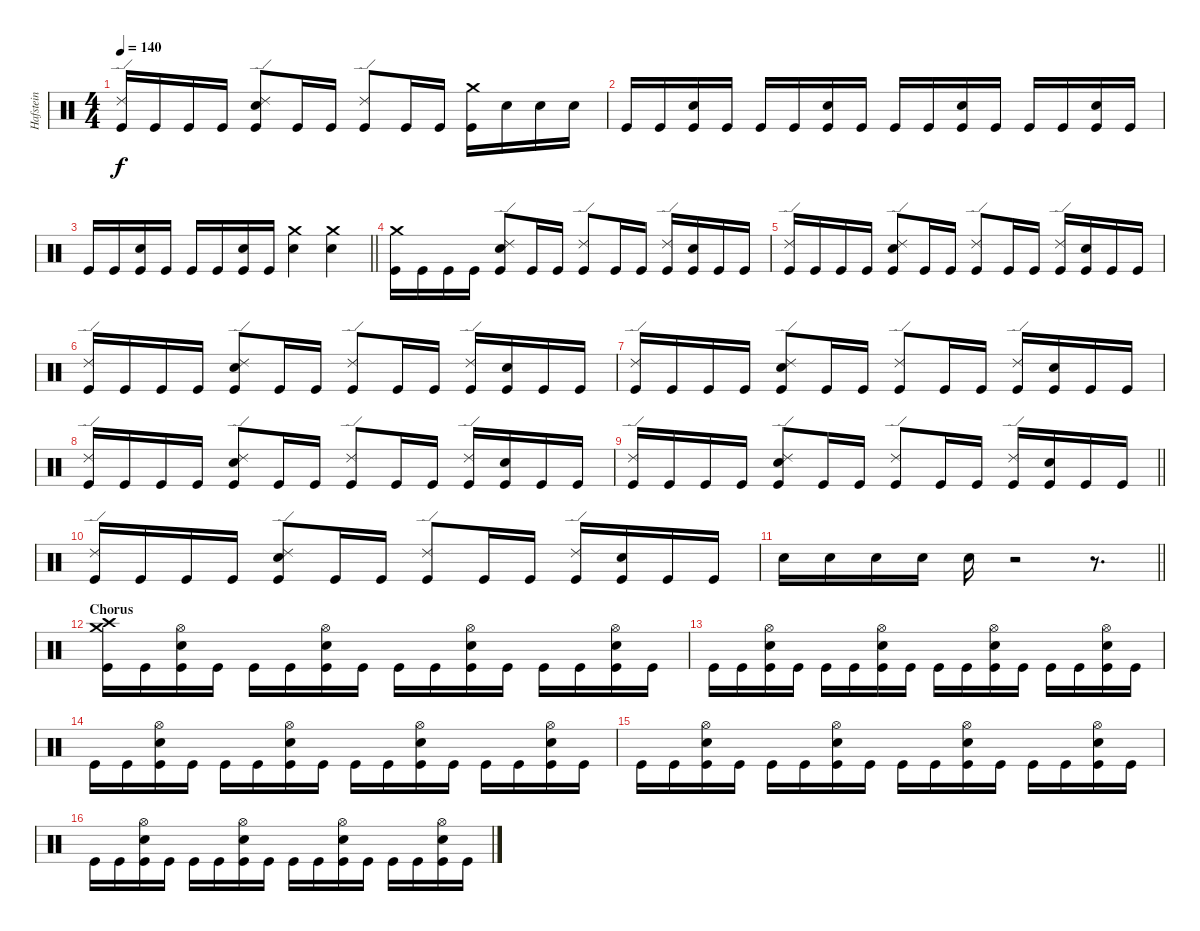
\track ("Hafstein" "Hafstein") {instrument percussion}
\staff {score}
\articulation defaults
\ts (4 4)
\tempo 140
\clef neutral
\ks c
("Ride (edge) 2" "Kick (hit)").16{dy f} "Kick (hit)".16 "Kick (hit)".16 "Kick (hit)".16 ("Ride (edge) 2" "Electric Snare (hit)" "Kick (hit)").8 "Kick (hit)".16 "Kick (hit)".16 ("Ride (edge) 2" "Kick (hit)").8 "Kick (hit)".16 "Kick (hit)".16 ("Crash medium (hit)" "Kick (hit)").16 "Electric Snare (hit)".16 "Electric Snare (hit)".16 "Electric Snare (hit)".16 |
"Kick (hit)".16 "Kick (hit)".16 ("Electric Snare (hit)" "Kick (hit)").16 "Kick (hit)".16 "Kick (hit)".16 "Kick (hit)".16 ("Electric Snare (hit)" "Kick (hit)").16 "Kick (hit)".16 "Kick (hit)".16 "Kick (hit)".16 ("Electric Snare (hit)" "Kick (hit)").16 "Kick (hit)".16 "Kick (hit)".16 "Kick (hit)".16 ("Electric Snare (hit)" "Kick (hit)").16 "Kick (hit)".16 |
\barLineRight lightlight "Kick (hit)".16 "Kick (hit)".16
("Electric Snare (hit)" "Kick (hit)").16 "Kick (hit)".16 "Kick (hit)".16 "Kick (hit)".16 ("Electric Snare (hit)" "Kick (hit)").16 "Kick (hit)".16 ("Crash medium (hit)" "Electric Snare (hit)").4 ("Crash medium (hit)" "Electric Snare (hit)").4 |
("Crash medium (hit)" "Kick (hit)").16 "Kick (hit)".16 "Kick (hit)".16 "Kick (hit)".16 ("Ride (edge) 2" "Electric Snare (hit)" "Kick (hit)").8 "Kick (hit)".16 "Kick (hit)".16 ("Ride (edge) 2" "Kick (hit)").8 "Kick (hit)".16 "Kick (hit)".16 ("Ride (edge) 2" "Kick (hit)").16 ("Electric Snare (hit)" "Kick (hit)").16 "Kick (hit)".16 "Kick (hit)".16 |
("Ride (edge) 2" "Kick (hit)").16 "Kick (hit)".16 "Kick (hit)".16 "Kick (hit)".16 ("Ride (edge) 2" "Electric Snare (hit)" "Kick (hit)").8 "Kick (hit)".16 "Kick (hit)".16 ("Ride (edge) 2" "Kick (hit)").8 "Kick (hit)".16 "Kick (hit)".16 ("Ride (edge) 2" "Kick (hit)").16 ("Electric Snare (hit)" "Kick (hit)").16 "Kick (hit)".16 "Kick (hit)".16 |
("Ride (edge) 2" "Kick (hit)").16 "Kick (hit)".16 "Kick (hit)".16 "Kick (hit)".16 ("Ride (edge) 2" "Electric Snare (hit)" "Kick (hit)").8 "Kick (hit)".16 "Kick (hit)".16 ("Ride (edge) 2" "Kick (hit)").8 "Kick (hit)".16 "Kick (hit)".16 ("Ride (edge) 2" "Kick (hit)").16 ("Electric Snare (hit)" "Kick (hit)").16 "Kick (hit)".16 "Kick (hit)".16 |
("Ride (edge) 2" "Kick (hit)").16 "Kick (hit)".16 "Kick (hit)".16 "Kick (hit)".16 ("Ride (edge) 2" "Electric Snare (hit)" "Kick (hit)").8 "Kick (hit)".16 "Kick (hit)".16 ("Ride (edge) 2" "Kick (hit)").8 "Kick (hit)".16 "Kick (hit)".16 ("Ride (edge) 2" "Kick (hit)").16 ("Electric Snare (hit)" "Kick (hit)").16 "Kick (hit)".16 "Kick (hit)".16 |
("Ride (edge) 2" "Kick (hit)").16 "Kick (hit)".16 "Kick (hit)".16 "Kick (hit)".16 ("Ride (edge) 2" "Electric Snare (hit)" "Kick (hit)").8 "Kick (hit)".16 "Kick (hit)".16 ("Ride (edge) 2" "Kick (hit)").8 "Kick (hit)".16 "Kick (hit)".16 ("Ride (edge) 2" "Kick (hit)").16 ("Electric Snare (hit)" "Kick (hit)").16 "Kick (hit)".16 "Kick (hit)".16 |
\barLineRight lightlight
("Ride (edge) 2" "Kick (hit)").16 "Kick (hit)".16 "Kick (hit)".16 "Kick (hit)".16 ("Ride (edge) 2" "Electric Snare (hit)" "Kick (hit)").8 "Kick (hit)".16 "Kick (hit)".16 ("Ride (edge) 2" "Kick (hit)").8 "Kick (hit)".16 "Kick (hit)".16 ("Ride (edge) 2" "Kick (hit)").16 ("Electric Snare (hit)" "Kick (hit)").16 "Kick (hit)".16 "Kick (hit)".16 |
("Ride (edge) 2" "Kick (hit)").16 "Kick (hit)".16 "Kick (hit)".16 "Kick (hit)".16 ("Ride (edge) 2" "Electric Snare (hit)" "Kick (hit)").8 "Kick (hit)".16 "Kick (hit)".16 ("Ride (edge) 2" "Kick (hit)").8 "Kick (hit)".16 "Kick (hit)".16 ("Ride (edge) 2" "Kick (hit)").16 ("Electric Snare (hit)" "Kick (hit)").16 "Kick (hit)".16 "Kick (hit)".16 |
\barLineRight lightlight "Electric Snare (hit)".16 "Electric Snare (hit)".16 "Electric Snare (hit)".16 "Electric Snare (hit)".16 "Electric Snare (hit)".16
r.2 r.8{d} |
\section ("" "Chorus")
("Crash medium (hit)" "Crash high (hit)" "Kick (hit)").16 "Kick (hit)".16 ("Hi-Hat (open)" "Electric Snare (hit)" "Kick (hit)").16 "Kick (hit)".16 "Kick (hit)".16 "Kick (hit)".16 ("Hi-Hat (open)" "Electric Snare (hit)" "Kick (hit)").16 "Kick (hit)".16 "Kick (hit)".16 "Kick (hit)".16 ("Hi-Hat (open)" "Electric Snare (hit)" "Kick (hit)").16 "Kick (hit)".16 "Kick (hit)".16 "Kick (hit)".16 ("Hi-Hat (open)" "Electric Snare (hit)" "Kick (hit)").16 "Kick (hit)".16 |
"Kick (hit)".16 "Kick (hit)".16 ("Hi-Hat (open)" "Electric Snare (hit)" "Kick (hit)").16 "Kick (hit)".16 "Kick (hit)".16 "Kick (hit)".16 ("Hi-Hat (open)" "Electric Snare (hit)" "Kick (hit)").16 "Kick (hit)".16 "Kick (hit)".16 "Kick (hit)".16 ("Hi-Hat (open)" "Electric Snare (hit)" "Kick (hit)").16 "Kick (hit)".16 "Kick (hit)".16 "Kick (hit)".16 ("Hi-Hat (open)" "Electric Snare (hit)" "Kick (hit)").16 "Kick (hit)".16 |
"Kick (hit)".16 "Kick (hit)".16 ("Hi-Hat (open)" "Electric Snare (hit)" "Kick (hit)").16 "Kick (hit)".16 "Kick (hit)".16 "Kick (hit)".16 ("Hi-Hat (open)" "Electric Snare (hit)" "Kick (hit)").16 "Kick (hit)".16 "Kick (hit)".16 "Kick (hit)".16 ("Hi-Hat (open)" "Electric Snare (hit)" "Kick (hit)").16 "Kick (hit)".16 "Kick (hit)".16 "Kick (hit)".16 ("Hi-Hat (open)" "Electric Snare (hit)" "Kick (hit)").16 "Kick (hit)".16 |
"Kick (hit)".16 "Kick (hit)".16 ("Hi-Hat (open)" "Electric Snare (hit)" "Kick (hit)").16 "Kick (hit)".16 "Kick (hit)".16 "Kick (hit)".16 ("Hi-Hat (open)" "Electric Snare (hit)" "Kick (hit)").16 "Kick (hit)".16 "Kick (hit)".16 "Kick (hit)".16 ("Hi-Hat (open)" "Electric Snare (hit)" "Kick (hit)").16 "Kick (hit)".16 "Kick (hit)".16 "Kick (hit)".16 ("Hi-Hat (open)" "Electric Snare (hit)" "Kick (hit)").16 "Kick (hit)".16 |
"Kick (hit)".16 "Kick (hit)".16 ("Hi-Hat (open)" "Electric Snare (hit)" "Kick (hit)").16 "Kick (hit)".16 "Kick (hit)".16 "Kick (hit)".16 ("Hi-Hat (open)" "Electric Snare (hit)" "Kick (hit)").16 "Kick (hit)".16 "Kick (hit)".16 "Kick (hit)".16 ("Hi-Hat (open)" "Electric Snare (hit)" "Kick (hit)").16 "Kick (hit)".16 "Kick (hit)".16 "Kick (hit)".16 ("Hi-Hat (open)" "Electric Snare (hit)" "Kick (hit)").16 "Kick (hit)".16
